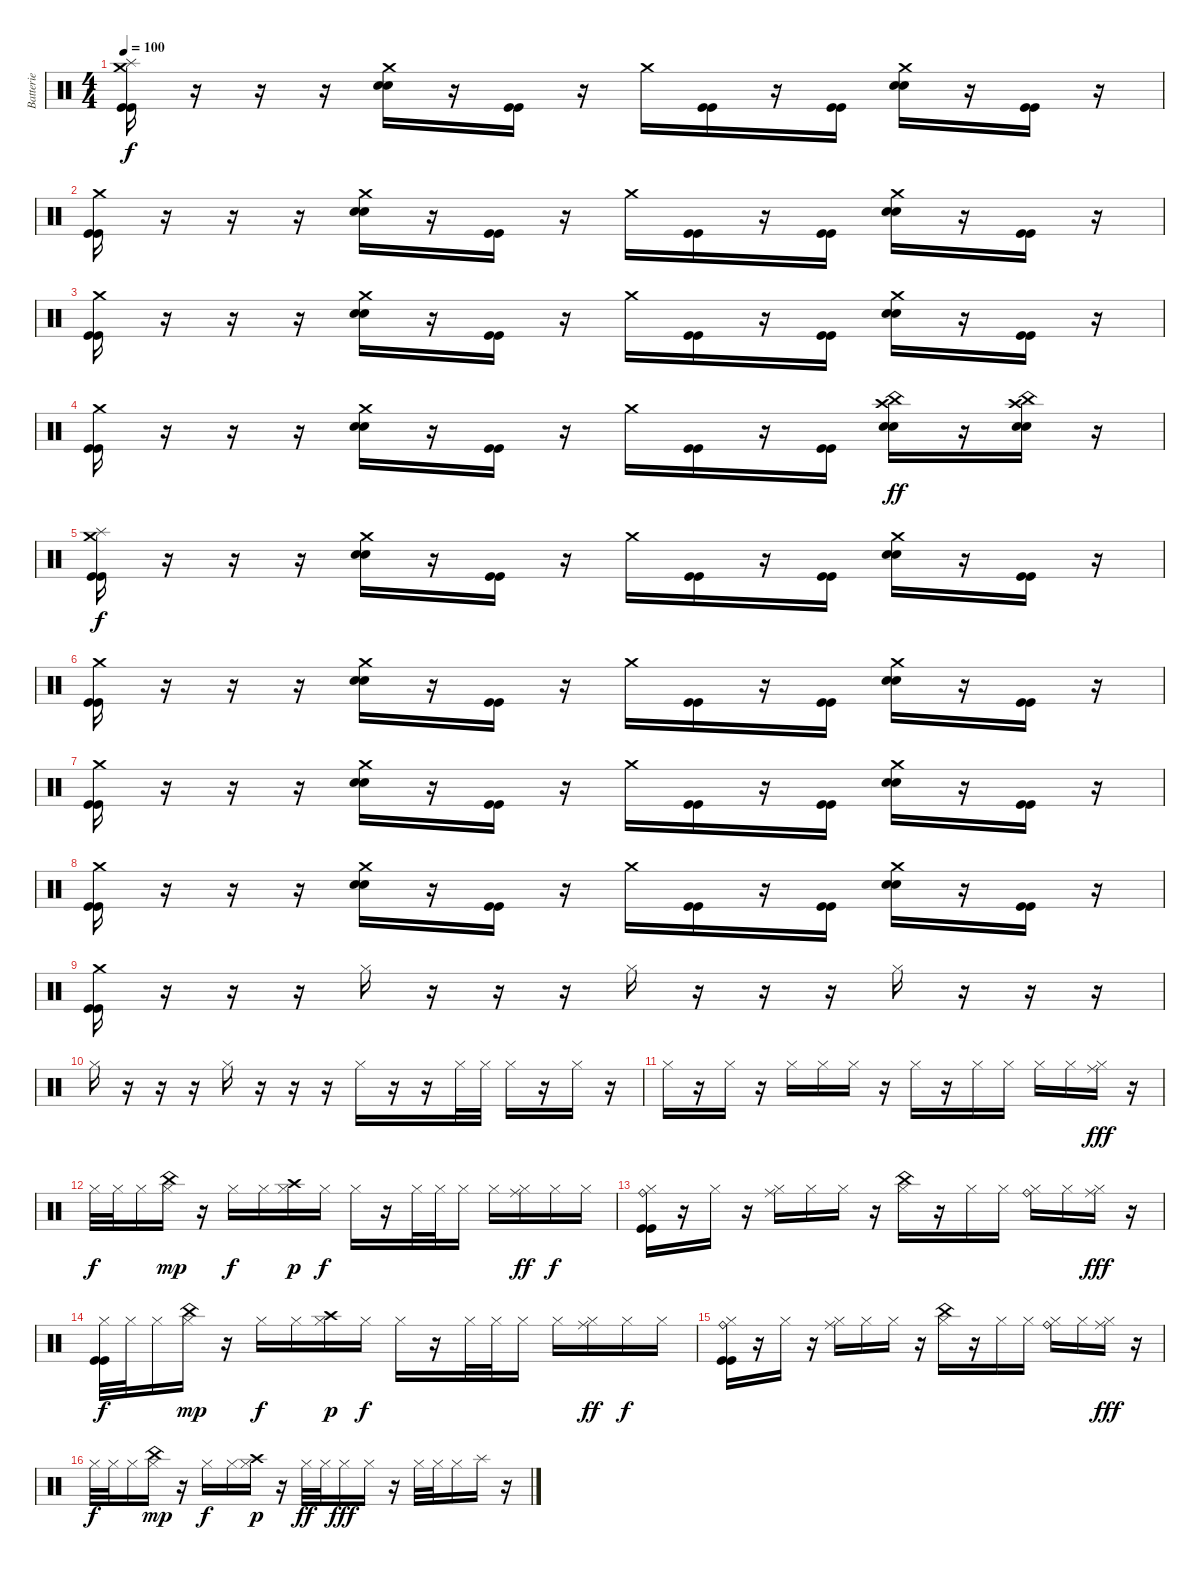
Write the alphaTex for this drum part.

\track ("Batterie" "Batterie") {instrument percussion}
\staff {score}
\articulation defaults
\ts (4 4)
\tempo 100
\clef neutral
\ks c
("Crash medium (hit)" "Splash (hit)" "Kick (hit)" "Kick (hit)").16{dy f} r.16 r.16 r.16 ("Crash medium (hit)" "Electric Snare (hit)" "Electric Snare (hit)").16 r.16 ("Kick (hit)" "Kick (hit)").16 r.16 "Crash medium (hit)".16 ("Kick (hit)" "Kick (hit)").16 r.16 ("Kick (hit)" "Kick (hit)").16 ("Crash medium (hit)" "Electric Snare (hit)" "Electric Snare (hit)").16 r.16 ("Kick (hit)" "Kick (hit)").16 r.16 |
("Crash medium (hit)" "Kick (hit)" "Kick (hit)").16 r.16 r.16 r.16 ("Crash medium (hit)" "Electric Snare (hit)" "Electric Snare (hit)").16 r.16 ("Kick (hit)" "Kick (hit)").16 r.16 "Crash medium (hit)".16 ("Kick (hit)" "Kick (hit)").16 r.16 ("Kick (hit)" "Kick (hit)").16 ("Crash medium (hit)" "Electric Snare (hit)" "Electric Snare (hit)").16 r.16 ("Kick (hit)" "Kick (hit)").16 r.16 |
("Crash medium (hit)" "Kick (hit)" "Kick (hit)").16 r.16 r.16 r.16 ("Crash medium (hit)" "Electric Snare (hit)" "Electric Snare (hit)").16 r.16 ("Kick (hit)" "Kick (hit)").16 r.16 "Crash medium (hit)".16 ("Kick (hit)" "Kick (hit)").16 r.16 ("Kick (hit)" "Kick (hit)").16 ("Crash medium (hit)" "Electric Snare (hit)" "Electric Snare (hit)").16 r.16 ("Kick (hit)" "Kick (hit)").16 r.16 |
("Crash medium (hit)" "Kick (hit)" "Kick (hit)").16 r.16 r.16 r.16 ("Crash medium (hit)" "Electric Snare (hit)" "Electric Snare (hit)").16 r.16 ("Kick (hit)" "Kick (hit)").16 r.16 "Crash medium (hit)".16 ("Kick (hit)" "Kick (hit)").16 r.16 ("Kick (hit)" "Kick (hit)").16 ("Crash high (hit)" "China (hit)" "Electric Snare (hit)" "Electric Snare (hit)").16{dy ff} r.16 ("Crash high (hit)" "China (hit)" "Electric Snare (hit)" "Electric Snare (hit)").16 r.16 |
("Crash medium (hit)" "Splash (hit)" "Kick (hit)" "Kick (hit)").16{dy f} r.16 r.16 r.16 ("Crash medium (hit)" "Electric Snare (hit)" "Electric Snare (hit)").16 r.16 ("Kick (hit)" "Kick (hit)").16 r.16 "Crash medium (hit)".16 ("Kick (hit)" "Kick (hit)").16 r.16 ("Kick (hit)" "Kick (hit)").16 ("Crash medium (hit)" "Electric Snare (hit)" "Electric Snare (hit)").16 r.16 ("Kick (hit)" "Kick (hit)").16 r.16 |
("Crash medium (hit)" "Kick (hit)" "Kick (hit)").16 r.16 r.16 r.16 ("Crash medium (hit)" "Electric Snare (hit)" "Electric Snare (hit)").16 r.16 ("Kick (hit)" "Kick (hit)").16 r.16 "Crash medium (hit)".16 ("Kick (hit)" "Kick (hit)").16 r.16 ("Kick (hit)" "Kick (hit)").16 ("Crash medium (hit)" "Electric Snare (hit)" "Electric Snare (hit)").16 r.16 ("Kick (hit)" "Kick (hit)").16 r.16 |
("Crash medium (hit)" "Kick (hit)" "Kick (hit)").16 r.16 r.16 r.16 ("Crash medium (hit)" "Electric Snare (hit)" "Electric Snare (hit)").16 r.16 ("Kick (hit)" "Kick (hit)").16 r.16 "Crash medium (hit)".16 ("Kick (hit)" "Kick (hit)").16 r.16 ("Kick (hit)" "Kick (hit)").16 ("Crash medium (hit)" "Electric Snare (hit)" "Electric Snare (hit)").16 r.16 ("Kick (hit)" "Kick (hit)").16 r.16 |
("Crash medium (hit)" "Kick (hit)" "Kick (hit)").16 r.16 r.16 r.16 ("Crash medium (hit)" "Electric Snare (hit)" "Electric Snare (hit)").16 r.16 ("Kick (hit)" "Kick (hit)").16 r.16 "Crash medium (hit)".16 ("Kick (hit)" "Kick (hit)").16 r.16 ("Kick (hit)" "Kick (hit)").16 ("Crash medium (hit)" "Electric Snare (hit)" "Electric Snare (hit)").16 r.16 ("Kick (hit)" "Kick (hit)").16 r.16 |
("Crash medium (hit)" "Kick (hit)" "Kick (hit)").16 r.16 r.16 r.16 "Hi-Hat (closed)".16 r.16 r.16 r.16 "Hi-Hat (closed)".16 r.16 r.16 r.16 "Hi-Hat (closed)".16 r.16 r.16 r.16 |
"Hi-Hat (closed)".16 r.16 r.16 r.16 "Hi-Hat (closed)".16 r.16 r.16 r.16 "Hi-Hat (closed)".16 r.16 r.16 "Hi-Hat (closed)".32 "Hi-Hat (closed)".32 "Hi-Hat (closed)".16 r.16 "Hi-Hat (closed)".16 r.16 |
"Hi-Hat (closed)".16 r.16 "Hi-Hat (closed)".16 r.16 "Hi-Hat (closed)".16 "Hi-Hat (closed)".16 "Hi-Hat (closed)".16 r.16 "Hi-Hat (closed)".16 r.16 "Hi-Hat (closed)".16 "Hi-Hat (closed)".16 "Hi-Hat (closed)".16 "Hi-Hat (closed)".16 ("Hi-Hat (closed)" "Ride (middle)").16{dy fff} r.16 |
"Hi-Hat (closed)".32{dy f} "Hi-Hat (closed)".32 "Hi-Hat (closed)".16 ("Hi-Hat (closed)" "China (hit)").16{dy mp} r.16 "Hi-Hat (closed)".16{dy f} "Hi-Hat (closed)".16 ("Hi-Hat (closed)" "Crash high (hit)").16{dy p} "Hi-Hat (closed)".16{dy f} "Hi-Hat (closed)".16 r.16 "Hi-Hat (closed)".32 "Hi-Hat (closed)".32 "Hi-Hat (closed)".16 "Hi-Hat (closed)".16 ("Hi-Hat (closed)" "Ride (middle)").16{dy ff} "Hi-Hat (closed)".16{dy f} "Hi-Hat (closed)".16 |
("Hi-Hat (closed)" "Ride (bell)" "Kick (hit)" "Kick (hit)").16 r.16 "Hi-Hat (closed)".16 r.16 ("Hi-Hat (closed)" "Ride (middle)").16 "Hi-Hat (closed)".16 "Hi-Hat (closed)".16 r.16 ("Hi-Hat (closed)" "China (hit)").16 r.16 "Hi-Hat (closed)".16 "Hi-Hat (closed)".16 ("Hi-Hat (closed)" "Ride (bell)").16 "Hi-Hat (closed)".16 ("Hi-Hat (closed)" "Ride (middle)").16{dy fff} r.16 |
("Hi-Hat (closed)" "Kick (hit)" "Kick (hit)").32{dy f} "Hi-Hat (closed)".32 "Hi-Hat (closed)".16 ("Hi-Hat (closed)" "China (hit)").16{dy mp} r.16 "Hi-Hat (closed)".16{dy f} "Hi-Hat (closed)".16 ("Hi-Hat (closed)" "Crash high (hit)").16{dy p} "Hi-Hat (closed)".16{dy f} "Hi-Hat (closed)".16 r.16 "Hi-Hat (closed)".32 "Hi-Hat (closed)".32 "Hi-Hat (closed)".16 "Hi-Hat (closed)".16 ("Hi-Hat (closed)" "Ride (middle)").16{dy ff} "Hi-Hat (closed)".16{dy f} "Hi-Hat (closed)".16 |
("Hi-Hat (closed)" "Ride (bell)" "Kick (hit)" "Kick (hit)").16 r.16 "Hi-Hat (closed)".16 r.16 ("Hi-Hat (closed)" "Ride (middle)").16 "Hi-Hat (closed)".16 "Hi-Hat (closed)".16 r.16 ("Hi-Hat (closed)" "China (hit)").16 r.16 "Hi-Hat (closed)".16 "Hi-Hat (closed)".16 ("Hi-Hat (closed)" "Ride (bell)").16 "Hi-Hat (closed)".16 ("Hi-Hat (closed)" "Ride (middle)").16{dy fff} r.16 |
"Hi-Hat (closed)".32{dy f} "Hi-Hat (closed)".32 "Hi-Hat (closed)".16 ("Hi-Hat (closed)" "China (hit)").16{dy mp} r.16 "Hi-Hat (closed)".16{dy f} "Hi-Hat (closed)".16 ("Hi-Hat (closed)" "Crash high (hit)").16{dy p} r.16 "Hi-Hat (closed)".32{dy ff} "Hi-Hat (closed)".32 "Hi-Hat (closed)".16{dy fff} "Hi-Hat (closed)".16 r.16 "Hi-Hat (closed)".32 "Hi-Hat (closed)".32 "Hi-Hat (closed)".16 "Splash (hit)".16 r.16
